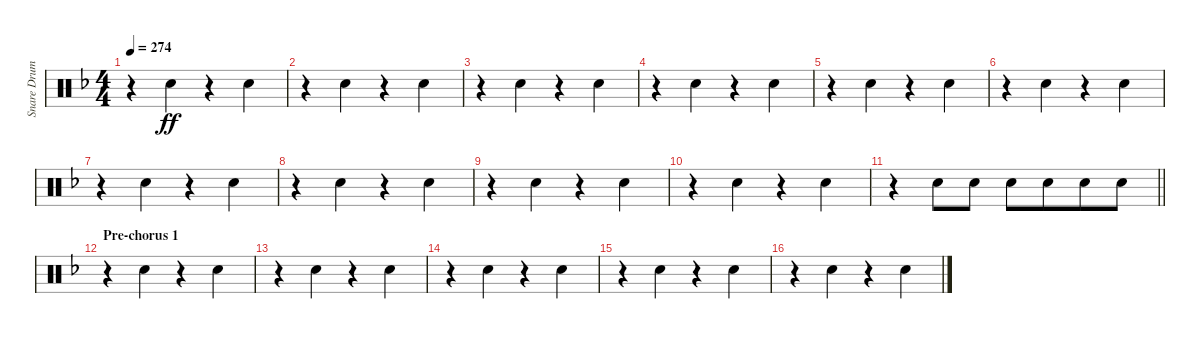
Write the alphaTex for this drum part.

\track ("Snare Drum" "Snare Drum") {instrument percussion}
\staff {score}
\articulation defaults
\ts (4 4)
\tempo 274
\clef neutral
\ks dminor
r.4{dy ff} "Electric Snare (hit)".4 r.4 "Electric Snare (hit)".4 |
r.4 "Electric Snare (hit)".4 r.4 "Electric Snare (hit)".4 |
r.4 "Electric Snare (hit)".4 r.4 "Electric Snare (hit)".4 |
r.4 "Electric Snare (hit)".4 r.4 "Electric Snare (hit)".4 |
r.4 "Electric Snare (hit)".4 r.4 "Electric Snare (hit)".4 |
r.4 "Electric Snare (hit)".4 r.4 "Electric Snare (hit)".4 |
r.4 "Electric Snare (hit)".4 r.4 "Electric Snare (hit)".4 |
r.4 "Electric Snare (hit)".4 r.4 "Electric Snare (hit)".4 |
r.4 "Electric Snare (hit)".4 r.4 "Electric Snare (hit)".4 |
r.4 "Electric Snare (hit)".4 r.4 "Electric Snare (hit)".4 |
\barLineRight lightlight
r.4 "Electric Snare (hit)".8 "Electric Snare (hit)".8 "Electric Snare (hit)".8 "Electric Snare (hit)".8{beam merge} "Electric Snare (hit)".8 "Electric Snare (hit)".8 |
\section ("" "Pre-chorus 1")
r.4 "Electric Snare (hit)".4 r.4 "Electric Snare (hit)".4 |
r.4 "Electric Snare (hit)".4 r.4 "Electric Snare (hit)".4 |
r.4 "Electric Snare (hit)".4 r.4 "Electric Snare (hit)".4 |
r.4 "Electric Snare (hit)".4 r.4 "Electric Snare (hit)".4 |
r.4 "Electric Snare (hit)".4 r.4 "Electric Snare (hit)".4
